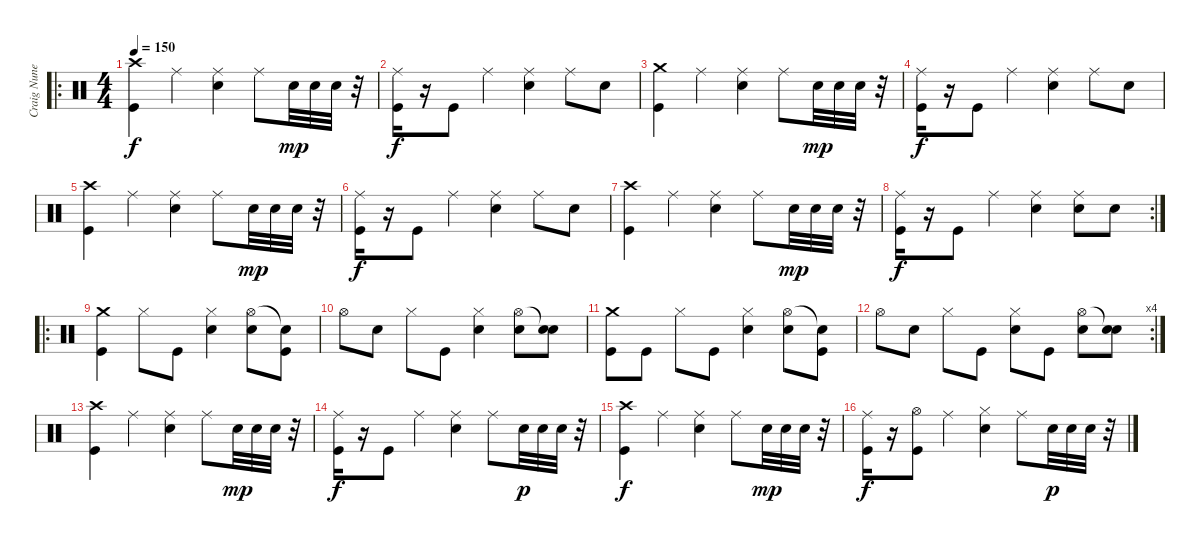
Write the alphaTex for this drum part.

\track ("Craig Nunenmacher (Drums)" "Craig Nune") {instrument percussion}
\staff {score}
\articulation defaults
\ro
\ts (4 4)
\tempo 150
\clef neutral
\ks c
("Crash high (hit)" "Kick (hit)").4{dy f} "Ride (middle)".4 ("Ride (middle)" "Snare (hit) 2").4 "Ride (middle)".8 "Snare (hit) 2".32{dy mp} "Snare (hit) 2".32 "Snare (hit) 2".32 r.32 |
("Ride (middle)" "Kick (hit)").16{dy f} r.16 "Kick (hit)".8 "Ride (middle)".4 ("Ride (middle)" "Snare (hit) 2").4 "Ride (middle)".8 "Snare (hit) 2".8 |
("Crash medium (hit)" "Kick (hit)").4 "Ride (middle)".4 ("Ride (middle)" "Snare (hit) 2").4 "Ride (middle)".8 "Snare (hit) 2".32{dy mp} "Snare (hit) 2".32 "Snare (hit) 2".32 r.32 |
("Ride (middle)" "Kick (hit)").16{dy f} r.16 "Kick (hit)".8 "Ride (middle)".4 ("Ride (middle)" "Snare (hit) 2").4 "Ride (middle)".8 "Snare (hit) 2".8 |
("Crash high (hit)" "Kick (hit)").4 "Ride (middle)".4 ("Ride (middle)" "Snare (hit) 2").4 "Ride (middle)".8 "Snare (hit) 2".32{dy mp} "Snare (hit) 2".32 "Snare (hit) 2".32 r.32 |
("Ride (middle)" "Kick (hit)").16{dy f} r.16 "Kick (hit)".8 "Ride (middle)".4 ("Ride (middle)" "Snare (hit) 2").4 "Ride (middle)".8 "Snare (hit) 2".8 |
("Crash high (hit)" "Kick (hit)").4 "Ride (middle)".4 ("Ride (middle)" "Snare (hit) 2").4 "Ride (middle)".8 "Snare (hit) 2".32{dy mp} "Snare (hit) 2".32 "Snare (hit) 2".32 r.32 |
\rc 2
("Ride (middle)" "Kick (hit)").16{dy f} r.16 "Kick (hit)".8 "Ride (middle)".4 ("Ride (middle)" "Snare (hit) 2").4 ("Ride (middle)" "Snare (hit) 2").8 "Snare (hit) 2".8 |
\ro
("Crash medium (hit)" "Kick (hit)").4 "Hi-Hat (closed)".8 "Kick (hit)".8 ("Hi-Hat (closed)" "Snare (hit) 2").4 ("Hi-Hat (open)" "Snare (hit) 2").8 ("Snare (hit)"{t} "Kick (hit)").8 |
"Hi-Hat (open)".8 "Snare (hit) 2".8 "Hi-Hat (closed)".8 "Kick (hit)".8 ("Hi-Hat (closed)" "Snare (hit) 2").4 ("Hi-Hat (open)" "Snare (hit) 2").8 ("Snare (hit)"{t} "Snare (hit) 2").8 |
("Crash medium (hit)" "Kick (hit)").8 "Kick (hit)".8 "Hi-Hat (closed)".8 "Kick (hit)".8 ("Hi-Hat (closed)" "Snare (hit) 2").4 ("Hi-Hat (open)" "Snare (hit) 2").8 ("Snare (hit)"{t} "Kick (hit)").8 |
\rc 4 "Hi-Hat (open)".8 "Snare (hit) 2".8 "Hi-Hat (closed)".8 "Kick (hit)".8
("Hi-Hat (closed)" "Snare (hit) 2").8 "Kick (hit)".8 ("Hi-Hat (open)" "Snare (hit) 2").8 ("Snare (hit)"{t} "Snare (hit) 2").8 |
("Crash high (hit)" "Kick (hit)").4 "Ride (middle)".4 ("Ride (middle)" "Snare (hit) 2").4 "Ride (middle)".8 "Snare (hit) 2".32{dy mp} "Snare (hit) 2".32 "Snare (hit) 2".32 r.32 |
("Ride (middle)" "Kick (hit)").16{dy f} r.16 "Kick (hit)".8 "Ride (middle)".4 ("Ride (middle)" "Snare (hit) 2").4 "Ride (middle)".8 "Snare (hit) 2".32{dy p} "Snare (hit) 2".32 "Snare (hit) 2".32 r.32 |
("Crash high (hit)" "Kick (hit)").4{dy f} "Ride (middle)".4 ("Ride (middle)" "Snare (hit) 2").4 "Ride (middle)".8 "Snare (hit) 2".32{dy mp} "Snare (hit) 2".32 "Snare (hit) 2".32 r.32 |
("Ride (middle)" "Kick (hit)").16{dy f} r.16 ("Hi-Hat (open)" "Kick (hit)").8 "Ride (middle)".4 ("Hi-Hat (closed)" "Snare (hit) 2").4 "Ride (middle)".8 "Snare (hit) 2".32{dy p} "Snare (hit) 2".32 "Snare (hit) 2".32 r.32
